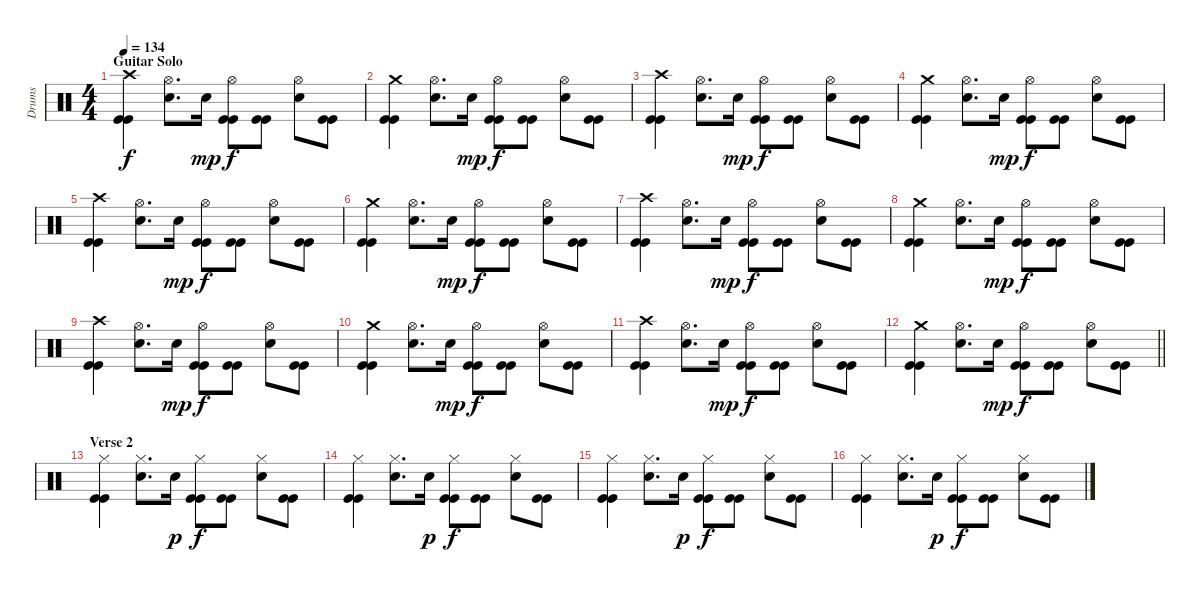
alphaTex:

\track ("Drums" "Drums") {instrument percussion}
\staff {score}
\articulation defaults
\ts (4 4)
\section ("" "Guitar Solo")
\tempo 134
\clef neutral
\ks c
("Crash high (hit)" "Kick (hit)" "Kick (hit)").4{dy f} ("Hi-Hat (open)" "Electric Snare (hit)").8{d} "Electric Snare (hit)".16{dy mp} ("Hi-Hat (open)" "Kick (hit)" "Kick (hit)").8{dy f} ("Kick (hit)" "Kick (hit)").8 ("Hi-Hat (open)" "Electric Snare (hit)").8 ("Kick (hit)" "Kick (hit)").8 |
("Crash medium (hit)" "Kick (hit)" "Kick (hit)").4 ("Hi-Hat (open)" "Electric Snare (hit)").8{d} "Electric Snare (hit)".16{dy mp} ("Hi-Hat (open)" "Kick (hit)" "Kick (hit)").8{dy f} ("Kick (hit)" "Kick (hit)").8 ("Hi-Hat (open)" "Electric Snare (hit)").8 ("Kick (hit)" "Kick (hit)").8 |
("Crash high (hit)" "Kick (hit)" "Kick (hit)").4 ("Hi-Hat (open)" "Electric Snare (hit)").8{d} "Electric Snare (hit)".16{dy mp} ("Hi-Hat (open)" "Kick (hit)" "Kick (hit)").8{dy f} ("Kick (hit)" "Kick (hit)").8 ("Hi-Hat (open)" "Electric Snare (hit)").8 ("Kick (hit)" "Kick (hit)").8 |
("Crash medium (hit)" "Kick (hit)" "Kick (hit)").4 ("Hi-Hat (open)" "Electric Snare (hit)").8{d} "Electric Snare (hit)".16{dy mp} ("Hi-Hat (open)" "Kick (hit)" "Kick (hit)").8{dy f} ("Kick (hit)" "Kick (hit)").8 ("Hi-Hat (open)" "Electric Snare (hit)").8 ("Kick (hit)" "Kick (hit)").8 |
("Crash high (hit)" "Kick (hit)" "Kick (hit)").4 ("Hi-Hat (open)" "Electric Snare (hit)").8{d} "Electric Snare (hit)".16{dy mp} ("Hi-Hat (open)" "Kick (hit)" "Kick (hit)").8{dy f} ("Kick (hit)" "Kick (hit)").8 ("Hi-Hat (open)" "Electric Snare (hit)").8 ("Kick (hit)" "Kick (hit)").8 |
("Crash medium (hit)" "Kick (hit)" "Kick (hit)").4 ("Hi-Hat (open)" "Electric Snare (hit)").8{d} "Electric Snare (hit)".16{dy mp} ("Hi-Hat (open)" "Kick (hit)" "Kick (hit)").8{dy f} ("Kick (hit)" "Kick (hit)").8 ("Hi-Hat (open)" "Electric Snare (hit)").8 ("Kick (hit)" "Kick (hit)").8 |
("Crash high (hit)" "Kick (hit)" "Kick (hit)").4 ("Hi-Hat (open)" "Electric Snare (hit)").8{d} "Electric Snare (hit)".16{dy mp} ("Hi-Hat (open)" "Kick (hit)" "Kick (hit)").8{dy f} ("Kick (hit)" "Kick (hit)").8 ("Hi-Hat (open)" "Electric Snare (hit)").8 ("Kick (hit)" "Kick (hit)").8 |
("Crash medium (hit)" "Kick (hit)" "Kick (hit)").4 ("Hi-Hat (open)" "Electric Snare (hit)").8{d} "Electric Snare (hit)".16{dy mp} ("Hi-Hat (open)" "Kick (hit)" "Kick (hit)").8{dy f} ("Kick (hit)" "Kick (hit)").8 ("Hi-Hat (open)" "Electric Snare (hit)").8 ("Kick (hit)" "Kick (hit)").8 |
("Crash high (hit)" "Kick (hit)" "Kick (hit)").4 ("Hi-Hat (open)" "Electric Snare (hit)").8{d} "Electric Snare (hit)".16{dy mp} ("Hi-Hat (open)" "Kick (hit)" "Kick (hit)").8{dy f} ("Kick (hit)" "Kick (hit)").8 ("Hi-Hat (open)" "Electric Snare (hit)").8 ("Kick (hit)" "Kick (hit)").8 |
("Crash medium (hit)" "Kick (hit)" "Kick (hit)").4 ("Hi-Hat (open)" "Electric Snare (hit)").8{d} "Electric Snare (hit)".16{dy mp} ("Hi-Hat (open)" "Kick (hit)" "Kick (hit)").8{dy f} ("Kick (hit)" "Kick (hit)").8 ("Hi-Hat (open)" "Electric Snare (hit)").8 ("Kick (hit)" "Kick (hit)").8 |
("Crash high (hit)" "Kick (hit)" "Kick (hit)").4 ("Hi-Hat (open)" "Electric Snare (hit)").8{d} "Electric Snare (hit)".16{dy mp} ("Hi-Hat (open)" "Kick (hit)" "Kick (hit)").8{dy f} ("Kick (hit)" "Kick (hit)").8 ("Hi-Hat (open)" "Electric Snare (hit)").8 ("Kick (hit)" "Kick (hit)").8 |
\barLineRight lightlight
("Crash medium (hit)" "Kick (hit)" "Kick (hit)").4 ("Hi-Hat (open)" "Electric Snare (hit)").8{d} "Electric Snare (hit)".16{dy mp} ("Hi-Hat (open)" "Kick (hit)" "Kick (hit)").8{dy f} ("Kick (hit)" "Kick (hit)").8 ("Hi-Hat (open)" "Electric Snare (hit)").8 ("Kick (hit)" "Kick (hit)").8 |
\section ("" "Verse 2")
("Hi-Hat (closed)" "Kick (hit)" "Kick (hit)").4 ("Hi-Hat (closed)" "Electric Snare (hit)").8{d} "Electric Snare (hit)".16{dy p} ("Hi-Hat (closed)" "Kick (hit)" "Kick (hit)").8{dy f} ("Kick (hit)" "Kick (hit)").8 ("Hi-Hat (closed)" "Electric Snare (hit)").8 ("Kick (hit)" "Kick (hit)").8 |
("Hi-Hat (closed)" "Kick (hit)" "Kick (hit)").4 ("Hi-Hat (closed)" "Electric Snare (hit)").8{d} "Electric Snare (hit)".16{dy p} ("Hi-Hat (closed)" "Kick (hit)" "Kick (hit)").8{dy f} ("Kick (hit)" "Kick (hit)").8 ("Hi-Hat (closed)" "Electric Snare (hit)").8 ("Kick (hit)" "Kick (hit)").8 |
("Hi-Hat (closed)" "Kick (hit)" "Kick (hit)").4 ("Hi-Hat (closed)" "Electric Snare (hit)").8{d} "Electric Snare (hit)".16{dy p} ("Hi-Hat (closed)" "Kick (hit)" "Kick (hit)").8{dy f} ("Kick (hit)" "Kick (hit)").8 ("Hi-Hat (closed)" "Electric Snare (hit)").8 ("Kick (hit)" "Kick (hit)").8 |
("Hi-Hat (closed)" "Kick (hit)" "Kick (hit)").4 ("Hi-Hat (closed)" "Electric Snare (hit)").8{d} "Electric Snare (hit)".16{dy p} ("Hi-Hat (closed)" "Kick (hit)" "Kick (hit)").8{dy f} ("Kick (hit)" "Kick (hit)").8 ("Hi-Hat (closed)" "Electric Snare (hit)").8 ("Kick (hit)" "Kick (hit)").8
